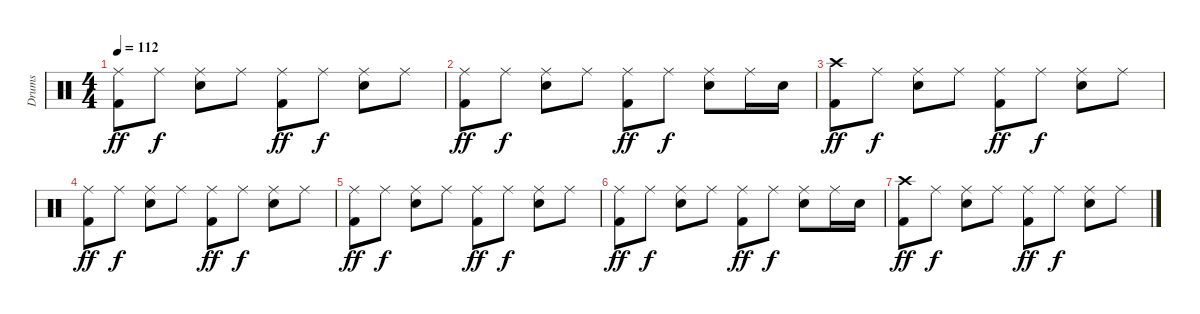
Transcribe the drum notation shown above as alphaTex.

\track ("Drums" "Drums") {instrument percussion}
\staff {score}
\articulation defaults
\ts (4 4)
\tempo 112
\clef neutral
\ks c
("Ride (middle)" "Kick (hit) 2").8{dy ff volume 12} "Ride (middle)".8{dy f} ("Ride (middle)" "Snare (hit) 2").8 "Ride (middle)".8 ("Ride (middle)" "Kick (hit) 2").8{dy ff} "Ride (middle)".8{dy f} ("Ride (middle)" "Snare (hit) 2").8 "Ride (middle)".8 |
("Ride (middle)" "Kick (hit) 2").8{dy ff volume 10} "Ride (middle)".8{dy f} ("Ride (middle)" "Snare (hit) 2").8 "Ride (middle)".8 ("Ride (middle)" "Kick (hit) 2").8{dy ff} "Ride (middle)".8{dy f} ("Ride (middle)" "Snare (hit) 2").8 "Ride (middle)".16 "Snare (hit) 2".16 |
("Crash high (hit)" "Kick (hit) 2").8{dy ff volume 8} "Ride (middle)".8{dy f} ("Ride (middle)" "Snare (hit) 2").8 "Ride (middle)".8 ("Ride (middle)" "Kick (hit) 2").8{dy ff} "Ride (middle)".8{dy f} ("Ride (middle)" "Snare (hit) 2").8 "Ride (middle)".8 |
("Ride (middle)" "Kick (hit) 2").8{dy ff volume 6} "Ride (middle)".8{dy f} ("Ride (middle)" "Snare (hit) 2").8 "Ride (middle)".8 ("Ride (middle)" "Kick (hit) 2").8{dy ff} "Ride (middle)".8{dy f} ("Ride (middle)" "Snare (hit) 2").8 "Ride (middle)".8 |
("Ride (middle)" "Kick (hit) 2").8{dy ff volume 5} "Ride (middle)".8{dy f} ("Ride (middle)" "Snare (hit) 2").8 "Ride (middle)".8 ("Ride (middle)" "Kick (hit) 2").8{dy ff} "Ride (middle)".8{dy f} ("Ride (middle)" "Snare (hit) 2").8 "Ride (middle)".8 |
("Ride (middle)" "Kick (hit) 2").8{dy ff volume 4} "Ride (middle)".8{dy f} ("Ride (middle)" "Snare (hit) 2").8 "Ride (middle)".8 ("Ride (middle)" "Kick (hit) 2").8{dy ff} "Ride (middle)".8{dy f} ("Ride (middle)" "Snare (hit) 2").8 "Ride (middle)".16 "Snare (hit) 2".16 |
("Crash high (hit)" "Kick (hit) 2").8{dy ff volume 2} "Ride (middle)".8{dy f} ("Ride (middle)" "Snare (hit) 2").8 "Ride (middle)".8 ("Ride (middle)" "Kick (hit) 2").8{dy ff} "Ride (middle)".8{dy f} ("Ride (middle)" "Snare (hit) 2").8 "Ride (middle)".8
